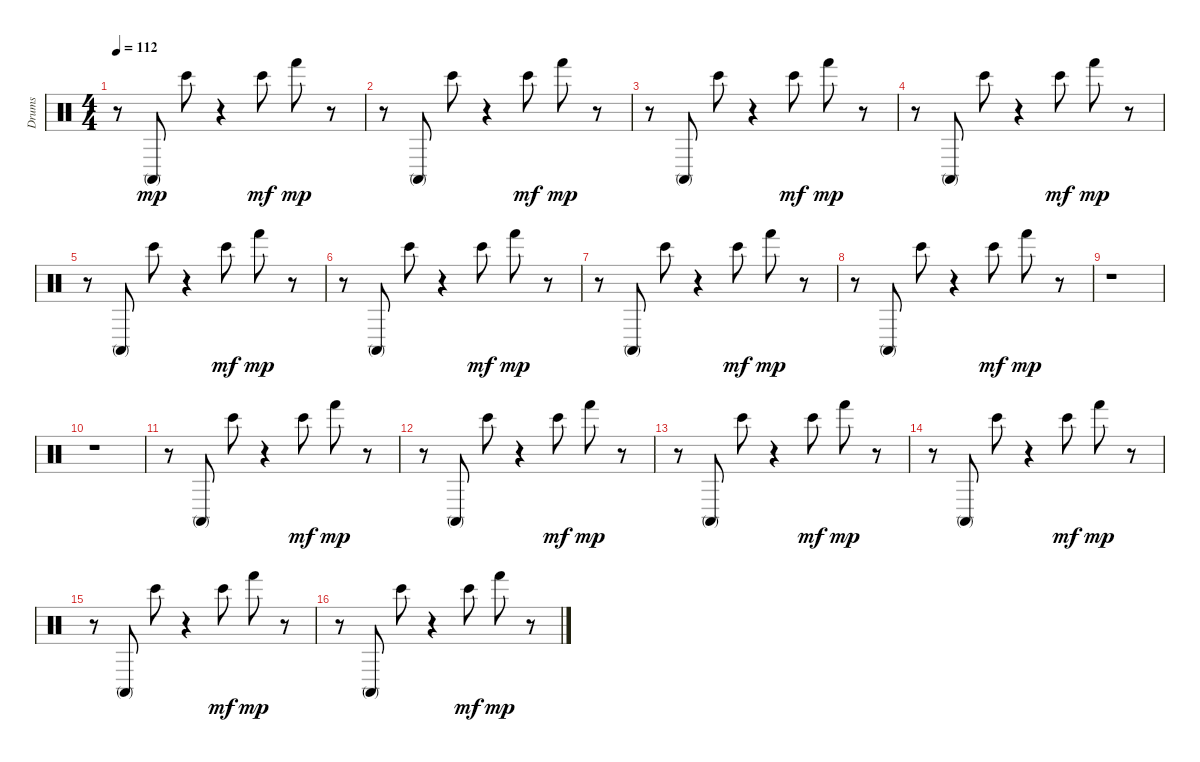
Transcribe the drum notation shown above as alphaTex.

\track ("Drums" "Drums") {instrument percussion}
\staff {score}
\articulation defaults
\ts (4 4)
\tempo 112
\clef neutral
\ks c
r.8{dy mp} "Conga high (mute)".8 "Bongo High (hit)".8 r.4 "Bongo High (hit)".8{dy mf} "Hand (hit)".8{dy mp} r.8 |
r.8 "Conga high (mute)".8 "Bongo High (hit)".8 r.4 "Bongo High (hit)".8{dy mf} "Hand (hit)".8{dy mp} r.8 |
r.8 "Conga high (mute)".8 "Bongo High (hit)".8 r.4 "Bongo High (hit)".8{dy mf} "Hand (hit)".8{dy mp} r.8 |
r.8 "Conga high (mute)".8 "Bongo High (hit)".8 r.4 "Bongo High (hit)".8{dy mf} "Hand (hit)".8{dy mp} r.8 |
r.8 "Conga high (mute)".8 "Bongo High (hit)".8 r.4 "Bongo High (hit)".8{dy mf} "Hand (hit)".8{dy mp} r.8 |
r.8 "Conga high (mute)".8 "Bongo High (hit)".8 r.4 "Bongo High (hit)".8{dy mf} "Hand (hit)".8{dy mp} r.8 |
r.8 "Conga high (mute)".8 "Bongo High (hit)".8 r.4 "Bongo High (hit)".8{dy mf} "Hand (hit)".8{dy mp} r.8 |
r.8 "Conga high (mute)".8 "Bongo High (hit)".8 r.4 "Bongo High (hit)".8{dy mf} "Hand (hit)".8{dy mp} r.8 |
r.1 |
r.1 |
r.8 "Conga high (mute)".8 "Bongo High (hit)".8 r.4 "Bongo High (hit)".8{dy mf} "Hand (hit)".8{dy mp} r.8 |
r.8 "Conga high (mute)".8 "Bongo High (hit)".8 r.4 "Bongo High (hit)".8{dy mf} "Hand (hit)".8{dy mp} r.8 |
r.8 "Conga high (mute)".8 "Bongo High (hit)".8 r.4 "Bongo High (hit)".8{dy mf} "Hand (hit)".8{dy mp} r.8 |
r.8 "Conga high (mute)".8 "Bongo High (hit)".8 r.4 "Bongo High (hit)".8{dy mf} "Hand (hit)".8{dy mp} r.8 |
r.8 "Conga high (mute)".8 "Bongo High (hit)".8 r.4 "Bongo High (hit)".8{dy mf} "Hand (hit)".8{dy mp} r.8 |
r.8 "Conga high (mute)".8 "Bongo High (hit)".8 r.4 "Bongo High (hit)".8{dy mf} "Hand (hit)".8{dy mp} r.8
